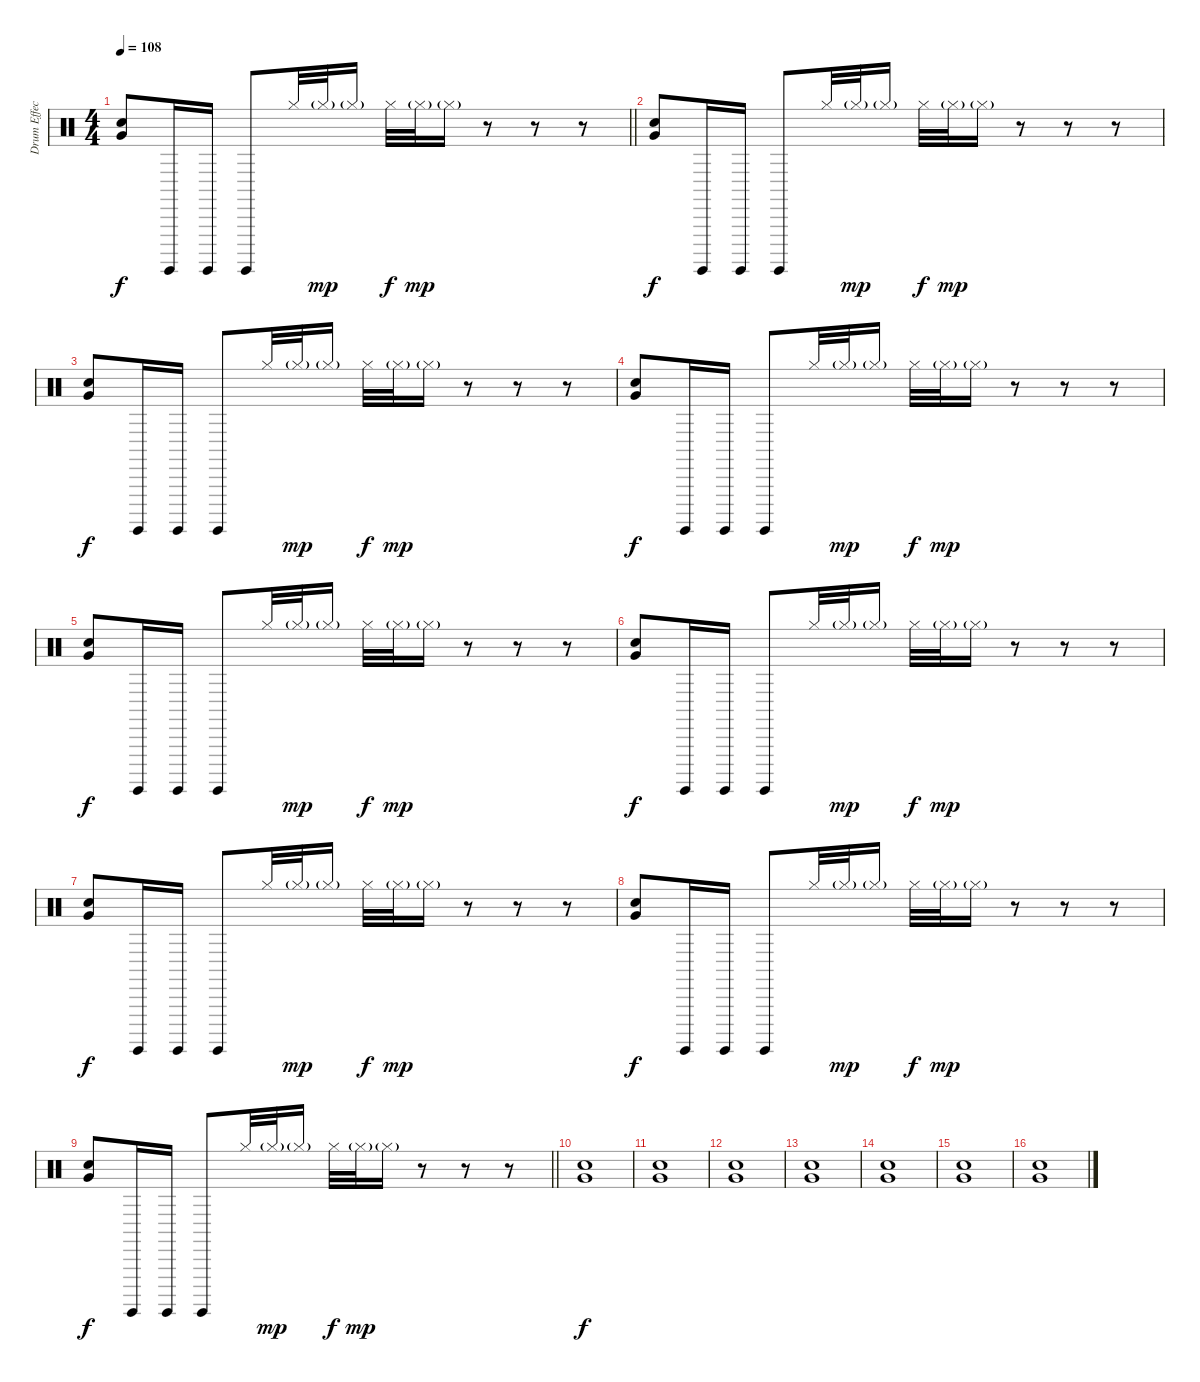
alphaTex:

\track ("Drum Effects" "Drum Effec") {instrument percussion}
\staff {score}
\articulation defaults
\ts (4 4)
\tempo 108
\clef neutral
\barLineRight lightlight
\ks c
("Hand Clap (hit)" "Very Low Tom (hit)").8{dy f} "Surdo (hit)".16 "Surdo (hit)".16 "Surdo (hit)".8 "Hi-Hat (closed)".32 "Hi-Hat (closed)"{g}.32{dy mp} "Hi-Hat (closed)"{g}.16 "Hi-Hat (closed)".32{dy f} "Hi-Hat (closed)"{g}.32{dy mp} "Hi-Hat (closed)"{g}.16 r.8 r.8 r.8 |
\section ("" "")
("Hand Clap (hit)" "Very Low Tom (hit)").8{dy f} "Surdo (hit)".16 "Surdo (hit)".16 "Surdo (hit)".8 "Hi-Hat (closed)".32 "Hi-Hat (closed)"{g}.32{dy mp} "Hi-Hat (closed)"{g}.16 "Hi-Hat (closed)".32{dy f} "Hi-Hat (closed)"{g}.32{dy mp} "Hi-Hat (closed)"{g}.16 r.8 r.8 r.8 |
("Hand Clap (hit)" "Very Low Tom (hit)").8{dy f} "Surdo (hit)".16 "Surdo (hit)".16 "Surdo (hit)".8 "Hi-Hat (closed)".32 "Hi-Hat (closed)"{g}.32{dy mp} "Hi-Hat (closed)"{g}.16 "Hi-Hat (closed)".32{dy f} "Hi-Hat (closed)"{g}.32{dy mp} "Hi-Hat (closed)"{g}.16 r.8 r.8 r.8 |
("Hand Clap (hit)" "Very Low Tom (hit)").8{dy f} "Surdo (hit)".16 "Surdo (hit)".16 "Surdo (hit)".8 "Hi-Hat (closed)".32 "Hi-Hat (closed)"{g}.32{dy mp} "Hi-Hat (closed)"{g}.16 "Hi-Hat (closed)".32{dy f} "Hi-Hat (closed)"{g}.32{dy mp} "Hi-Hat (closed)"{g}.16 r.8 r.8 r.8 |
("Hand Clap (hit)" "Very Low Tom (hit)").8{dy f} "Surdo (hit)".16 "Surdo (hit)".16 "Surdo (hit)".8 "Hi-Hat (closed)".32 "Hi-Hat (closed)"{g}.32{dy mp} "Hi-Hat (closed)"{g}.16 "Hi-Hat (closed)".32{dy f} "Hi-Hat (closed)"{g}.32{dy mp} "Hi-Hat (closed)"{g}.16 r.8 r.8 r.8 |
("Hand Clap (hit)" "Very Low Tom (hit)").8{dy f} "Surdo (hit)".16 "Surdo (hit)".16 "Surdo (hit)".8 "Hi-Hat (closed)".32 "Hi-Hat (closed)"{g}.32{dy mp} "Hi-Hat (closed)"{g}.16 "Hi-Hat (closed)".32{dy f} "Hi-Hat (closed)"{g}.32{dy mp} "Hi-Hat (closed)"{g}.16 r.8 r.8 r.8 |
("Hand Clap (hit)" "Very Low Tom (hit)").8{dy f} "Surdo (hit)".16 "Surdo (hit)".16 "Surdo (hit)".8 "Hi-Hat (closed)".32 "Hi-Hat (closed)"{g}.32{dy mp} "Hi-Hat (closed)"{g}.16 "Hi-Hat (closed)".32{dy f} "Hi-Hat (closed)"{g}.32{dy mp} "Hi-Hat (closed)"{g}.16 r.8 r.8 r.8 |
("Hand Clap (hit)" "Very Low Tom (hit)").8{dy f} "Surdo (hit)".16 "Surdo (hit)".16 "Surdo (hit)".8 "Hi-Hat (closed)".32 "Hi-Hat (closed)"{g}.32{dy mp} "Hi-Hat (closed)"{g}.16 "Hi-Hat (closed)".32{dy f} "Hi-Hat (closed)"{g}.32{dy mp} "Hi-Hat (closed)"{g}.16 r.8 r.8 r.8 |
\barLineRight lightlight
("Hand Clap (hit)" "Very Low Tom (hit)").8{dy f} "Surdo (hit)".16 "Surdo (hit)".16 "Surdo (hit)".8 "Hi-Hat (closed)".32 "Hi-Hat (closed)"{g}.32{dy mp} "Hi-Hat (closed)"{g}.16 "Hi-Hat (closed)".32{dy f} "Hi-Hat (closed)"{g}.32{dy mp} "Hi-Hat (closed)"{g}.16 r.8 r.8 r.8 |
\section ("" "")
("Hand Clap (hit)" "Very Low Tom (hit)").1{dy f} |
("Hand Clap (hit)" "Very Low Tom (hit)").1 |
("Hand Clap (hit)" "Very Low Tom (hit)").1 |
("Hand Clap (hit)" "Very Low Tom (hit)").1 |
("Hand Clap (hit)" "Very Low Tom (hit)").1 |
("Hand Clap (hit)" "Very Low Tom (hit)").1 |
("Hand Clap (hit)" "Very Low Tom (hit)").1
